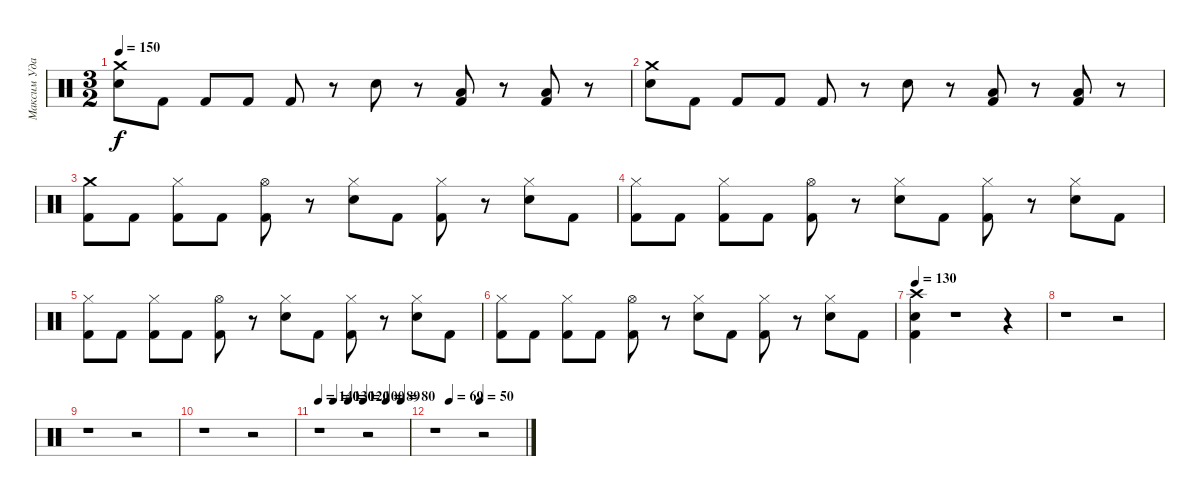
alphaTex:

\track ("Максим Удалов" "Максим Уда") {instrument percussion}
\staff {score}
\articulation defaults
\ts (3 2)
\tempo 150
\clef neutral
\ks c
("Electric Snare (hit)" "Crash medium (hit)").8{dy f} "Kick (hit) 2".8 "Kick (hit) 2".8 "Kick (hit) 2".8 "Kick (hit) 2".8 r.8 "Electric Snare (hit)".8 r.8 ("Low Floor Tom (hit)" "Kick (hit) 2").8 r.8 ("Kick (hit) 2" "Low Floor Tom (hit)").8 r.8 |
("Electric Snare (hit)" "Crash medium (hit)").8 "Kick (hit) 2".8 "Kick (hit) 2".8 "Kick (hit) 2".8 "Kick (hit) 2".8 r.8 "Electric Snare (hit)".8 r.8 ("Kick (hit) 2" "Low Floor Tom (hit)").8 r.8 ("Low Floor Tom (hit)" "Kick (hit) 2").8 r.8 |
("Crash medium (hit)" "Kick (hit) 2").8 "Kick (hit) 2".8 ("Hi-Hat (closed)" "Kick (hit) 2").8 "Kick (hit) 2".8 ("Hi-Hat (open)" "Kick (hit) 2").8 r.8 ("Electric Snare (hit)" "Hi-Hat (closed)").8 "Kick (hit) 2".8 ("Kick (hit) 2" "Hi-Hat (closed)").8 r.8 ("Electric Snare (hit)" "Hi-Hat (closed)").8 "Kick (hit) 2".8 |
("Kick (hit) 2" "Hi-Hat (closed)").8 "Kick (hit) 2".8 ("Hi-Hat (closed)" "Kick (hit) 2").8 "Kick (hit) 2".8 ("Kick (hit) 2" "Hi-Hat (open)").8 r.8 ("Hi-Hat (closed)" "Electric Snare (hit)").8 "Kick (hit) 2".8 ("Hi-Hat (closed)" "Kick (hit) 2").8 r.8 ("Hi-Hat (closed)" "Electric Snare (hit)").8 "Kick (hit) 2".8 |
("Hi-Hat (closed)" "Kick (hit) 2").8 "Kick (hit) 2".8 ("Hi-Hat (closed)" "Kick (hit) 2").8 "Kick (hit) 2".8 ("Hi-Hat (open)" "Kick (hit) 2").8 r.8 ("Electric Snare (hit)" "Hi-Hat (closed)").8 "Kick (hit) 2".8 ("Hi-Hat (closed)" "Kick (hit) 2").8 r.8 ("Electric Snare (hit)" "Hi-Hat (closed)").8 "Kick (hit) 2".8 |
("Kick (hit) 2" "Hi-Hat (closed)").8 "Kick (hit) 2".8 ("Kick (hit) 2" "Hi-Hat (closed)").8 "Kick (hit) 2".8 ("Kick (hit) 2" "Hi-Hat (open)").8 r.8 ("Electric Snare (hit)" "Hi-Hat (closed)").8 "Kick (hit) 2".8 ("Kick (hit) 2" "Hi-Hat (closed)").8 r.8 ("Electric Snare (hit)" "Hi-Hat (closed)").8 "Kick (hit) 2".8 |
\tempo 130
("Crash high (hit)" "Electric Snare (hit)" "Kick (hit) 2").4 r.1 r.4 |
r.1 r.2 |
r.1 r.2 |
r.1 r.2 |
\tempo 140
\tempo (130 0.16666666666666666)
\tempo (120 0.3333333333333333)
\tempo (100 0.5)
\tempo (89 0.75)
\tempo (80 0.9166666666666666)
r.1 r.2 |
\tempo (69 0.16666666666666666)
\tempo (50 0.5)
r.1 r.2
